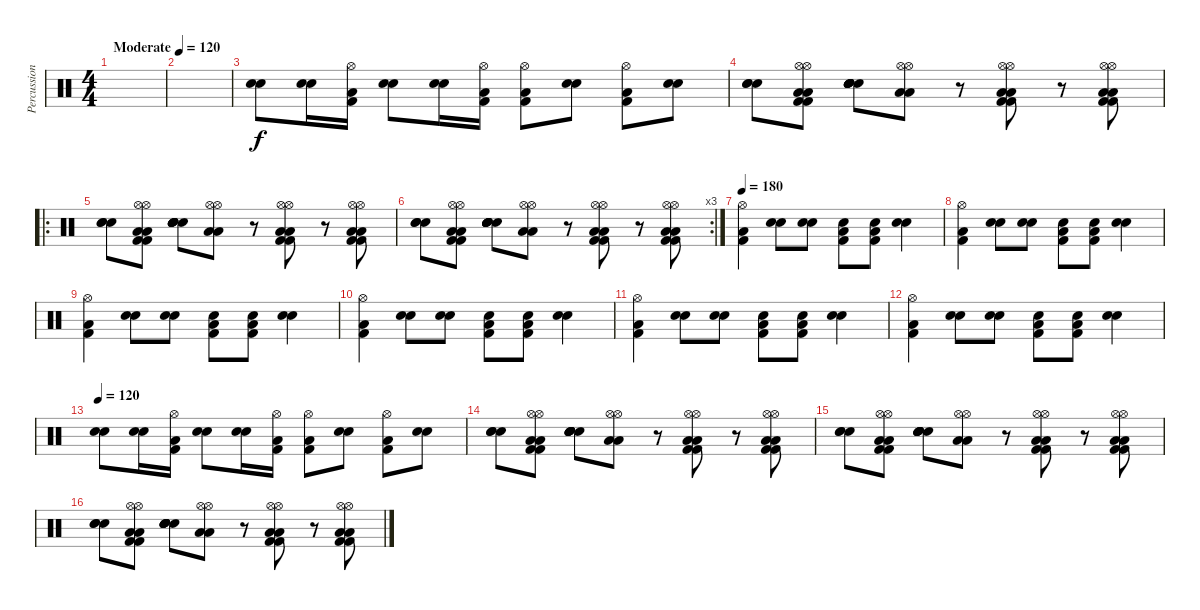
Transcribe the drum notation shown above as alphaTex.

\track ("Percussions" "Percussion") {instrument percussion}
\staff {score}
\articulation defaults
\ts (4 4)
\tempo (120 "Moderate")
\clef neutral
\ks c
|
|
("Snare (hit) 2" "Electric Snare (hit)").8 ("Snare (hit) 2" "Electric Snare (hit)").16 ("Hi-Hat (open)" "Kick (hit) 2" "Low Floor Tom (hit)").16 ("Snare (hit) 2" "Electric Snare (hit)").8 ("Snare (hit) 2" "Electric Snare (hit)").16 ("Hi-Hat (open)" "Kick (hit) 2" "Low Floor Tom (hit)").16 ("Hi-Hat (open)" "Kick (hit) 2" "Low Floor Tom (hit)").8 ("Snare (hit) 2" "Electric Snare (hit)").8 ("Hi-Hat (open)" "Kick (hit) 2" "Low Floor Tom (hit)").8 ("Snare (hit) 2" "Electric Snare (hit)").8 |
("Electric Snare (hit)" "Electric Snare (hit)" "Electric Snare (hit)").8 ("Hi-Hat (open)" "Hi-Hat (open)" "Kick (hit) 2" "Low Floor Tom (hit)" "Low Floor Tom (hit)" "Kick (hit) 2").8 ("Snare (hit) 2" "Snare (hit) 2" "Snare (hit) 2" "Electric Snare (hit)" "Electric Snare (hit)" "Electric Snare (hit)").8 ("Hi-Hat (open)" "Hi-Hat (open)" "Low Floor Tom (hit)" "Low Floor Tom (hit)").8 r.8 ("Hi-Hat (open)" "Hi-Hat (open)" "Low Floor Tom (hit)" "Low Floor Tom (hit)" "Kick (hit) 2" "Kick (hit) 2").8 r.8 ("Hi-Hat (open)" "Hi-Hat (open)" "Low Floor Tom (hit)" "Low Floor Tom (hit)" "Kick (hit) 2" "Kick (hit) 2").8 |
\ro
("Electric Snare (hit)" "Electric Snare (hit)" "Electric Snare (hit)").8 ("Hi-Hat (open)" "Hi-Hat (open)" "Kick (hit) 2" "Low Floor Tom (hit)" "Low Floor Tom (hit)" "Kick (hit) 2").8 ("Snare (hit) 2" "Snare (hit) 2" "Snare (hit) 2" "Electric Snare (hit)" "Electric Snare (hit)" "Electric Snare (hit)").8 ("Hi-Hat (open)" "Hi-Hat (open)" "Low Floor Tom (hit)" "Low Floor Tom (hit)").8 r.8 ("Hi-Hat (open)" "Hi-Hat (open)" "Low Floor Tom (hit)" "Low Floor Tom (hit)" "Kick (hit) 2" "Kick (hit) 2").8 r.8 ("Hi-Hat (open)" "Hi-Hat (open)" "Low Floor Tom (hit)" "Low Floor Tom (hit)" "Kick (hit) 2" "Kick (hit) 2").8 |
\rc 3
("Electric Snare (hit)" "Electric Snare (hit)" "Electric Snare (hit)").8 ("Hi-Hat (open)" "Hi-Hat (open)" "Kick (hit) 2" "Low Floor Tom (hit)" "Low Floor Tom (hit)" "Kick (hit) 2").8 ("Snare (hit) 2" "Snare (hit) 2" "Snare (hit) 2" "Electric Snare (hit)" "Electric Snare (hit)" "Electric Snare (hit)").8 ("Hi-Hat (open)" "Hi-Hat (open)" "Low Floor Tom (hit)" "Low Floor Tom (hit)").8 r.8 ("Hi-Hat (open)" "Hi-Hat (open)" "Low Floor Tom (hit)" "Low Floor Tom (hit)" "Kick (hit) 2" "Kick (hit) 2").8 r.8 ("Hi-Hat (open)" "Hi-Hat (open)" "Low Floor Tom (hit)" "Low Floor Tom (hit)" "Kick (hit) 2" "Kick (hit) 2").8 |
\tempo 180
("Hi-Hat (open)" "Kick (hit) 2" "Low Floor Tom (hit)").4 ("Snare (hit) 2" "Electric Snare (hit)").8 ("Snare (hit) 2" "Electric Snare (hit)").8 ("Snare (hit) 2" "Kick (hit) 2" "Low Floor Tom (hit)").8 ("Snare (hit) 2" "Kick (hit) 2" "Low Floor Tom (hit)").8 ("Snare (hit) 2" "Electric Snare (hit)").4 |
("Hi-Hat (open)" "Kick (hit) 2" "Low Floor Tom (hit)").4 ("Snare (hit) 2" "Electric Snare (hit)").8 ("Snare (hit) 2" "Electric Snare (hit)").8 ("Snare (hit) 2" "Kick (hit) 2" "Low Floor Tom (hit)").8 ("Snare (hit) 2" "Kick (hit) 2" "Low Floor Tom (hit)").8 ("Snare (hit) 2" "Electric Snare (hit)").4 |
("Hi-Hat (open)" "Kick (hit) 2" "Low Floor Tom (hit)").4 ("Snare (hit) 2" "Electric Snare (hit)").8 ("Snare (hit) 2" "Electric Snare (hit)").8 ("Snare (hit) 2" "Kick (hit) 2" "Low Floor Tom (hit)").8 ("Snare (hit) 2" "Kick (hit) 2" "Low Floor Tom (hit)").8 ("Snare (hit) 2" "Electric Snare (hit)").4 |
("Hi-Hat (open)" "Kick (hit) 2" "Low Floor Tom (hit)").4 ("Snare (hit) 2" "Electric Snare (hit)").8 ("Snare (hit) 2" "Electric Snare (hit)").8 ("Snare (hit) 2" "Kick (hit) 2" "Low Floor Tom (hit)").8 ("Snare (hit) 2" "Kick (hit) 2" "Low Floor Tom (hit)").8 ("Snare (hit) 2" "Electric Snare (hit)").4 |
("Hi-Hat (open)" "Kick (hit) 2" "Low Floor Tom (hit)").4 ("Snare (hit) 2" "Electric Snare (hit)").8 ("Snare (hit) 2" "Electric Snare (hit)").8 ("Snare (hit) 2" "Kick (hit) 2" "Low Floor Tom (hit)").8 ("Snare (hit) 2" "Kick (hit) 2" "Low Floor Tom (hit)").8 ("Snare (hit) 2" "Electric Snare (hit)").4 |
("Hi-Hat (open)" "Kick (hit) 2" "Low Floor Tom (hit)").4 ("Snare (hit) 2" "Electric Snare (hit)").8 ("Snare (hit) 2" "Electric Snare (hit)").8 ("Snare (hit) 2" "Kick (hit) 2" "Low Floor Tom (hit)").8 ("Snare (hit) 2" "Kick (hit) 2" "Low Floor Tom (hit)").8 ("Snare (hit) 2" "Electric Snare (hit)").4 |
\tempo 120
("Snare (hit) 2" "Electric Snare (hit)").8 ("Snare (hit) 2" "Electric Snare (hit)").16 ("Hi-Hat (open)" "Kick (hit) 2" "Low Floor Tom (hit)").16 ("Snare (hit) 2" "Electric Snare (hit)").8 ("Snare (hit) 2" "Electric Snare (hit)").16 ("Hi-Hat (open)" "Kick (hit) 2" "Low Floor Tom (hit)").16 ("Hi-Hat (open)" "Kick (hit) 2" "Low Floor Tom (hit)").8 ("Snare (hit) 2" "Electric Snare (hit)").8 ("Hi-Hat (open)" "Kick (hit) 2" "Low Floor Tom (hit)").8 ("Snare (hit) 2" "Electric Snare (hit)").8 |
("Electric Snare (hit)" "Electric Snare (hit)" "Electric Snare (hit)").8 ("Hi-Hat (open)" "Hi-Hat (open)" "Kick (hit) 2" "Low Floor Tom (hit)" "Low Floor Tom (hit)" "Kick (hit) 2").8 ("Snare (hit) 2" "Snare (hit) 2" "Snare (hit) 2" "Electric Snare (hit)" "Electric Snare (hit)" "Electric Snare (hit)").8 ("Hi-Hat (open)" "Hi-Hat (open)" "Low Floor Tom (hit)" "Low Floor Tom (hit)").8 r.8 ("Hi-Hat (open)" "Hi-Hat (open)" "Low Floor Tom (hit)" "Low Floor Tom (hit)" "Kick (hit) 2" "Kick (hit) 2").8 r.8 ("Hi-Hat (open)" "Hi-Hat (open)" "Low Floor Tom (hit)" "Low Floor Tom (hit)" "Kick (hit) 2" "Kick (hit) 2").8 |
("Electric Snare (hit)" "Electric Snare (hit)" "Electric Snare (hit)").8 ("Hi-Hat (open)" "Hi-Hat (open)" "Kick (hit) 2" "Low Floor Tom (hit)" "Low Floor Tom (hit)" "Kick (hit) 2").8 ("Snare (hit) 2" "Snare (hit) 2" "Snare (hit) 2" "Electric Snare (hit)" "Electric Snare (hit)" "Electric Snare (hit)").8 ("Hi-Hat (open)" "Hi-Hat (open)" "Low Floor Tom (hit)" "Low Floor Tom (hit)").8 r.8 ("Hi-Hat (open)" "Hi-Hat (open)" "Low Floor Tom (hit)" "Low Floor Tom (hit)" "Kick (hit) 2" "Kick (hit) 2").8 r.8 ("Hi-Hat (open)" "Hi-Hat (open)" "Low Floor Tom (hit)" "Low Floor Tom (hit)" "Kick (hit) 2" "Kick (hit) 2").8 |
("Electric Snare (hit)" "Electric Snare (hit)" "Electric Snare (hit)").8 ("Hi-Hat (open)" "Hi-Hat (open)" "Kick (hit) 2" "Low Floor Tom (hit)" "Low Floor Tom (hit)" "Kick (hit) 2").8 ("Snare (hit) 2" "Snare (hit) 2" "Snare (hit) 2" "Electric Snare (hit)" "Electric Snare (hit)" "Electric Snare (hit)").8 ("Hi-Hat (open)" "Hi-Hat (open)" "Low Floor Tom (hit)" "Low Floor Tom (hit)").8 r.8 ("Hi-Hat (open)" "Hi-Hat (open)" "Low Floor Tom (hit)" "Low Floor Tom (hit)" "Kick (hit) 2" "Kick (hit) 2").8 r.8 ("Hi-Hat (open)" "Hi-Hat (open)" "Low Floor Tom (hit)" "Low Floor Tom (hit)" "Kick (hit) 2" "Kick (hit) 2").8
